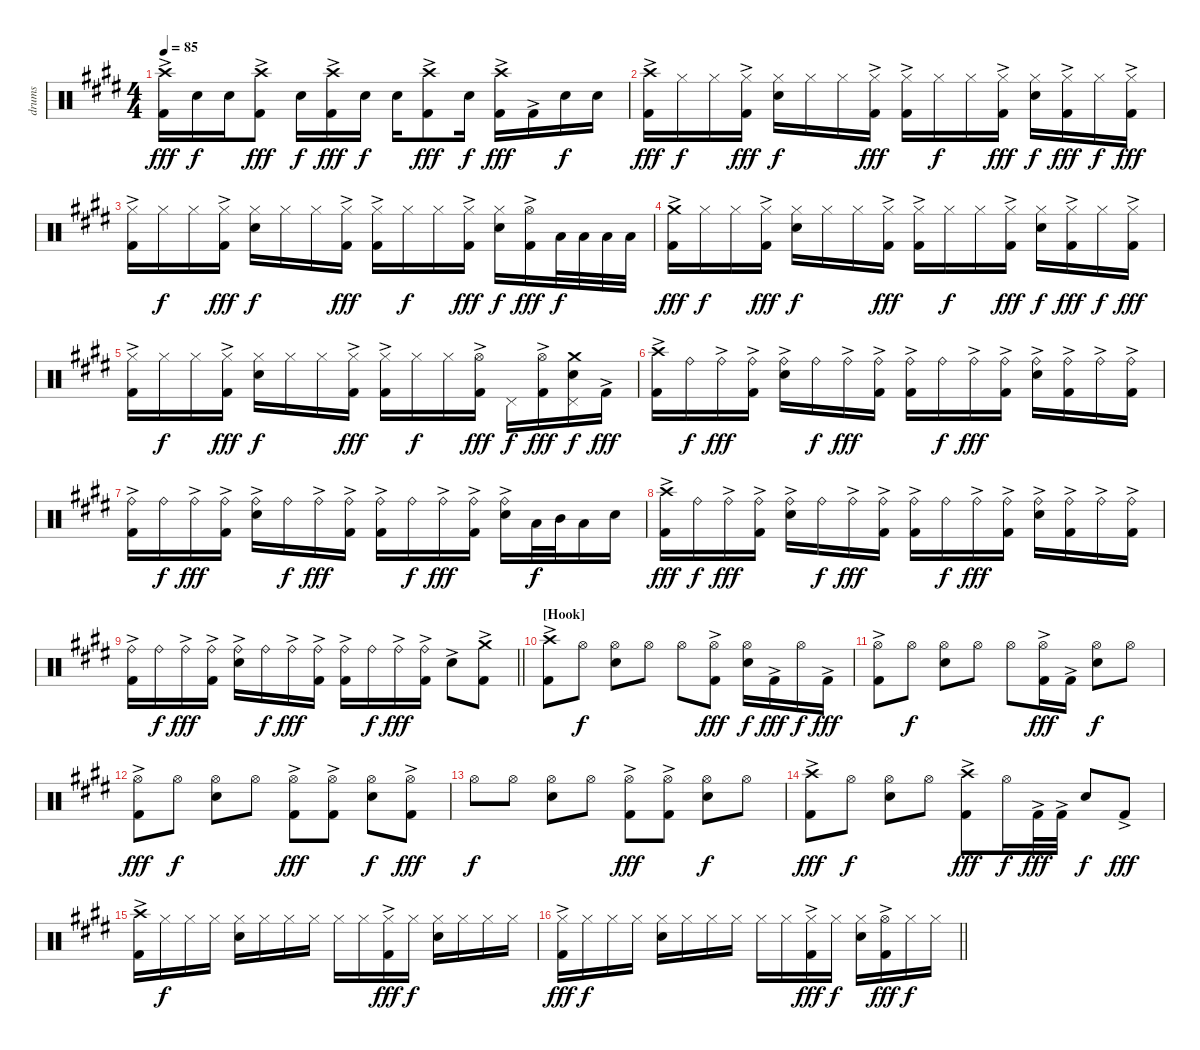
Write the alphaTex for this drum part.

\track ("drums" "drums") {instrument percussion}
\staff {score}
\articulation defaults
\ts (4 4)
\tempo 85
\clef neutral
\ks e
("Crash high (hit)" "Kick (hit) 2"{ac}).16{dy fff} "Snare (hit) 2".16{dy f} "Snare (hit) 2".16 ("Crash high (hit)" "Kick (hit) 2"{ac}).8{dy fff} "Snare (hit) 2".16{dy f} ("Crash high (hit)" "Kick (hit) 2"{ac}).16{dy fff} "Snare (hit) 2".16{dy f} "Snare (hit) 2".16 ("Crash high (hit)" "Kick (hit) 2"{ac}).8{dy fff} "Snare (hit) 2".16{dy f} ("Crash high (hit)" "Kick (hit) 2"{ac}).16{dy fff} "Kick (hit) 2"{ac}.16 "Snare (hit) 2".16{dy f} "Snare (hit) 2".16 |
("Crash high (hit)" "Kick (hit) 2"{ac}).16{dy fff} "Hi-Hat (closed)".16{dy f} "Hi-Hat (closed)".16 ("Hi-Hat (closed)" "Kick (hit) 2"{ac}).16{dy fff} ("Hi-Hat (closed)" "Snare (hit) 2").16{dy f} "Hi-Hat (closed)".16 "Hi-Hat (closed)".16 ("Hi-Hat (closed)" "Kick (hit) 2"{ac}).16{dy fff} ("Hi-Hat (closed)" "Kick (hit) 2"{ac}).16 "Hi-Hat (closed)".16{dy f} "Hi-Hat (closed)".16 ("Hi-Hat (closed)" "Kick (hit) 2"{ac}).16{dy fff} ("Hi-Hat (closed)" "Snare (hit) 2").16{dy f} ("Hi-Hat (closed)" "Kick (hit) 2"{ac}).16{dy fff} "Hi-Hat (closed)".16{dy f} ("Hi-Hat (closed)" "Kick (hit) 2"{ac}).16{dy fff} |
("Hi-Hat (closed)" "Kick (hit) 2"{ac}).16 "Hi-Hat (closed)".16{dy f} "Hi-Hat (closed)".16 ("Hi-Hat (closed)" "Kick (hit) 2"{ac}).16{dy fff} ("Hi-Hat (closed)" "Snare (hit) 2").16{dy f} "Hi-Hat (closed)".16 "Hi-Hat (closed)".16 ("Hi-Hat (closed)" "Kick (hit) 2"{ac}).16{dy fff} ("Hi-Hat (closed)" "Kick (hit) 2"{ac}).16 "Hi-Hat (closed)".16{dy f} "Hi-Hat (closed)".16 ("Hi-Hat (closed)" "Kick (hit) 2"{ac}).16{dy fff} ("Hi-Hat (closed)" "Snare (hit) 2").16{dy f} ("Hi-Hat (open)" "Kick (hit) 2"{ac}).16{dy fff} "Low Tom (hit)".32{dy f} "Low Tom (hit)".32 "Low Tom (hit)".32 "Low Tom (hit)".32 |
("Crash medium (hit)" "Kick (hit) 2"{ac}).16{dy fff} "Hi-Hat (closed)".16{dy f} "Hi-Hat (closed)".16 ("Hi-Hat (closed)" "Kick (hit) 2"{ac}).16{dy fff} ("Hi-Hat (closed)" "Snare (hit) 2").16{dy f} "Hi-Hat (closed)".16 "Hi-Hat (closed)".16 ("Hi-Hat (closed)" "Kick (hit) 2"{ac}).16{dy fff} ("Hi-Hat (closed)" "Kick (hit) 2"{ac}).16 "Hi-Hat (closed)".16{dy f} "Hi-Hat (closed)".16 ("Hi-Hat (closed)" "Kick (hit) 2"{ac}).16{dy fff} ("Hi-Hat (closed)" "Snare (hit) 2").16{dy f} ("Hi-Hat (closed)" "Kick (hit) 2"{ac}).16{dy fff} "Hi-Hat (closed)".16{dy f} ("Hi-Hat (closed)" "Kick (hit) 2"{ac}).16{dy fff} |
("Hi-Hat (closed)" "Kick (hit) 2"{ac}).16 "Hi-Hat (closed)".16{dy f} "Hi-Hat (closed)".16 ("Hi-Hat (closed)" "Kick (hit) 2"{ac}).16{dy fff} ("Hi-Hat (closed)" "Snare (hit) 2").16{dy f} "Hi-Hat (closed)".16 "Hi-Hat (closed)".16 ("Hi-Hat (closed)" "Kick (hit) 2"{ac}).16{dy fff} ("Hi-Hat (closed)" "Kick (hit) 2"{ac}).16 "Hi-Hat (closed)".16{dy f} "Hi-Hat (closed)".16 ("Hi-Hat (open)" "Kick (hit) 2"{ac}).16{dy fff} "Pedal Hi-Hat (hit)".16{dy f} ("Hi-Hat (open)" "Kick (hit) 2"{ac}).16{dy fff} ("Pedal Hi-Hat (hit)" "Crash medium (hit)" "Snare (hit) 2").16{dy f} "Kick (hit) 2"{ac}.16{dy fff} |
("Crash high (hit)" "Kick (hit) 2"{ac}).16 "Ride (bell)".16{dy f} "Ride (bell)"{ac}.16{dy fff} ("Ride (bell)" "Kick (hit) 2"{ac}).16 ("Ride (bell)"{ac} "Snare (hit) 2").16 "Ride (bell)".16{dy f} "Ride (bell)"{ac}.16{dy fff} ("Ride (bell)" "Kick (hit) 2"{ac}).16 ("Ride (bell)"{ac} "Kick (hit) 2"{ac}).16 "Ride (bell)".16{dy f} "Ride (bell)"{ac}.16{dy fff} ("Ride (bell)" "Kick (hit) 2"{ac}).16 ("Ride (bell)"{ac} "Snare (hit) 2").16 ("Ride (bell)" "Kick (hit) 2"{ac}).16 "Ride (bell)"{ac}.16 ("Ride (bell)" "Kick (hit) 2"{ac}).16 |
("Ride (bell)"{ac} "Kick (hit) 2"{ac}).16 "Ride (bell)".16{dy f} "Ride (bell)"{ac}.16{dy fff} ("Ride (bell)" "Kick (hit) 2"{ac}).16 ("Ride (bell)"{ac} "Snare (hit) 2").16 "Ride (bell)".16{dy f} "Ride (bell)"{ac}.16{dy fff} ("Ride (bell)" "Kick (hit) 2"{ac}).16 ("Ride (bell)"{ac} "Kick (hit) 2"{ac}).16 "Ride (bell)".16{dy f} "Ride (bell)"{ac}.16{dy fff} ("Ride (bell)" "Kick (hit) 2"{ac}).16 ("Ride (bell)"{ac} "Snare (hit) 2").16 "Low Tom (hit)".32{dy f} "Mid Tom (hit)".32 "Low Tom (hit)".16 "Snare (hit) 2".16 |
("Crash high (hit)" "Kick (hit) 2"{ac}).16{dy fff} "Ride (bell)".16{dy f} "Ride (bell)"{ac}.16{dy fff} ("Ride (bell)" "Kick (hit) 2"{ac}).16 ("Ride (bell)"{ac} "Snare (hit) 2").16 "Ride (bell)".16{dy f} "Ride (bell)"{ac}.16{dy fff} ("Ride (bell)" "Kick (hit) 2"{ac}).16 ("Ride (bell)"{ac} "Kick (hit) 2"{ac}).16 "Ride (bell)".16{dy f} "Ride (bell)"{ac}.16{dy fff} ("Ride (bell)" "Kick (hit) 2"{ac}).16 ("Ride (bell)"{ac} "Snare (hit) 2").16 ("Ride (bell)" "Kick (hit) 2"{ac}).16 "Ride (bell)"{ac}.16 ("Ride (bell)" "Kick (hit) 2"{ac}).16 |
\barLineRight lightlight
("Ride (bell)"{ac} "Kick (hit) 2"{ac}).16 "Ride (bell)".16{dy f} "Ride (bell)"{ac}.16{dy fff} ("Ride (bell)" "Kick (hit) 2"{ac}).16 ("Ride (bell)"{ac} "Snare (hit) 2").16 "Ride (bell)".16{dy f} "Ride (bell)"{ac}.16{dy fff} ("Ride (bell)" "Kick (hit) 2"{ac}).16 ("Ride (bell)"{ac} "Kick (hit) 2"{ac}).16 "Ride (bell)".16{dy f} "Ride (bell)"{ac}.16{dy fff} ("Ride (bell)" "Kick (hit) 2"{ac}).16 "Snare (hit) 2"{ac}.8 ("Crash medium (hit)" "Kick (hit) 2"{ac}).8 |
\section ("" "[Hook]")
("Crash high (hit)" "Kick (hit) 2"{ac}).8 "Hi-Hat (open)".8{dy f} ("Hi-Hat (open)" "Snare (hit) 2").8 "Hi-Hat (open)".8 "Hi-Hat (open)".8 ("Hi-Hat (open)" "Kick (hit) 2"{ac}).8{dy fff} ("Hi-Hat (open)" "Snare (hit) 2").16{dy f} "Kick (hit) 2"{ac}.16{dy fff} "Hi-Hat (open)".16{dy f} "Kick (hit) 2"{ac}.16{dy fff} |
("Hi-Hat (open)" "Kick (hit) 2"{ac}).8 "Hi-Hat (open)".8{dy f} ("Hi-Hat (open)" "Snare (hit) 2").8 "Hi-Hat (open)".8 "Hi-Hat (open)".8 ("Hi-Hat (open)" "Kick (hit) 2"{ac}).16{dy fff} "Kick (hit) 2"{ac}.16 ("Hi-Hat (open)" "Snare (hit) 2").8{dy f} "Hi-Hat (open)".8 |
("Hi-Hat (open)" "Kick (hit) 2"{ac}).8{dy fff} "Hi-Hat (open)".8{dy f} ("Hi-Hat (open)" "Snare (hit) 2").8 "Hi-Hat (open)".8 ("Hi-Hat (open)" "Kick (hit) 2"{ac}).8{dy fff} ("Hi-Hat (open)" "Kick (hit) 2"{ac}).8 ("Hi-Hat (open)" "Snare (hit) 2").8{dy f} ("Hi-Hat (open)" "Kick (hit) 2"{ac}).8{dy fff} |
"Hi-Hat (open)".8{dy f} "Hi-Hat (open)".8 ("Hi-Hat (open)" "Snare (hit) 2").8 "Hi-Hat (open)".8 ("Hi-Hat (open)" "Kick (hit) 2"{ac}).8{dy fff} ("Hi-Hat (open)" "Kick (hit) 2"{ac}).8 ("Hi-Hat (open)" "Snare (hit) 2").8{dy f} "Hi-Hat (open)".8 |
("Crash high (hit)" "Kick (hit) 2"{ac}).8{dy fff} "Hi-Hat (open)".8{dy f} ("Hi-Hat (open)" "Snare (hit) 2").8 "Hi-Hat (open)".8 ("Crash high (hit)" "Kick (hit) 2"{ac}).8{dy fff} "Hi-Hat (open)".16{dy f} "Kick (hit) 2"{ac}.32{dy fff} "Kick (hit) 2"{ac}.32 "Snare (hit) 2".8{dy f} "Kick (hit) 2"{ac}.8{dy fff} |
("Crash high (hit)" "Kick (hit) 2"{ac}).16 "Hi-Hat (closed)".16{dy f} "Hi-Hat (closed)".16 "Hi-Hat (closed)".16 ("Hi-Hat (closed)" "Snare (hit) 2").16 "Hi-Hat (closed)".16 "Hi-Hat (closed)".16 "Hi-Hat (closed)".16 "Hi-Hat (closed)".16 "Hi-Hat (closed)".16 ("Hi-Hat (closed)" "Kick (hit) 2"{ac}).16{dy fff} "Hi-Hat (closed)".16{dy f} ("Hi-Hat (closed)" "Snare (hit) 2").16 "Hi-Hat (closed)".16 "Hi-Hat (closed)".16 "Hi-Hat (closed)".16 |
\barLineRight lightlight
("Hi-Hat (closed)" "Kick (hit) 2"{ac}).16{dy fff} "Hi-Hat (closed)".16{dy f} "Hi-Hat (closed)".16 "Hi-Hat (closed)".16 ("Hi-Hat (closed)" "Snare (hit) 2").16 "Hi-Hat (closed)".16 "Hi-Hat (closed)".16 "Hi-Hat (closed)".16 "Hi-Hat (closed)".16 "Hi-Hat (closed)".16 ("Hi-Hat (closed)" "Kick (hit) 2"{ac}).16{dy fff} "Hi-Hat (closed)".16{dy f} ("Hi-Hat (closed)" "Snare (hit) 2").16 ("Hi-Hat (open)" "Kick (hit) 2"{ac}).16{dy fff} "Hi-Hat (closed)".16{dy f} "Hi-Hat (closed)".16
